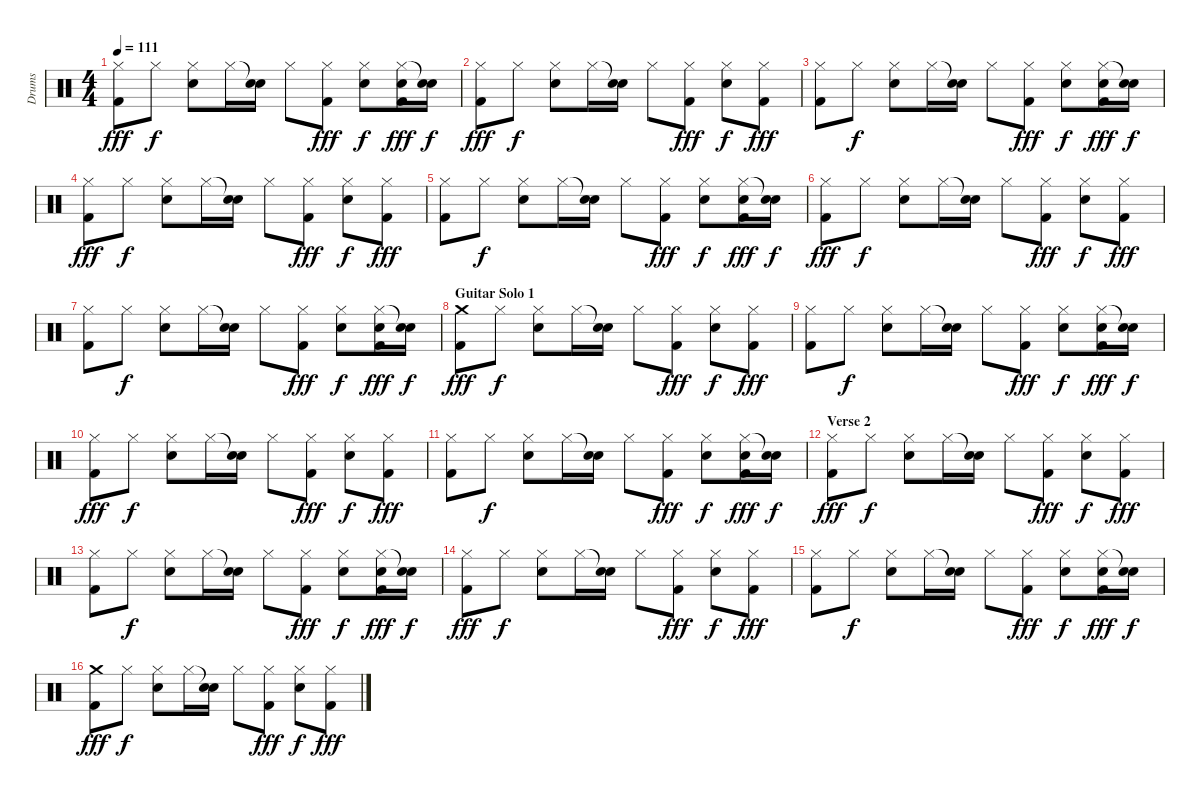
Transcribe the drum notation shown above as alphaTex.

\track ("Drums" "Drums") {instrument percussion}
\staff {score}
\articulation defaults
\ts (4 4)
\tempo 111
\clef neutral
\ks c
("Hi-Hat (closed)" "Kick (hit) 2").8{dy fff} "Hi-Hat (closed)".8{dy f} ("Hi-Hat (closed)" "Snare (hit) 2").8 "Hi-Hat (closed)".16 ("Snare (hit)"{t} "Snare (hit) 2").16 "Hi-Hat (closed)".8 ("Hi-Hat (closed)" "Kick (hit) 2").8{dy fff} ("Hi-Hat (closed)" "Snare (hit) 2").8{dy f} ("Hi-Hat (closed)" "Snare (hit) 2" "Kick (hit) 2").16{dy fff} ("Snare (hit)"{t} "Snare (hit) 2").16{dy f} |
("Hi-Hat (closed)" "Kick (hit) 2").8{dy fff} "Hi-Hat (closed)".8{dy f} ("Hi-Hat (closed)" "Snare (hit) 2").8 "Hi-Hat (closed)".16 ("Snare (hit)"{t} "Snare (hit) 2").16 "Hi-Hat (closed)".8 ("Hi-Hat (closed)" "Kick (hit) 2").8{dy fff} ("Hi-Hat (closed)" "Snare (hit) 2").8{dy f} ("Hi-Hat (closed)" "Kick (hit) 2").8{dy fff} |
("Hi-Hat (closed)" "Kick (hit) 2").8 "Hi-Hat (closed)".8{dy f} ("Hi-Hat (closed)" "Snare (hit) 2").8 "Hi-Hat (closed)".16 ("Snare (hit)"{t} "Snare (hit) 2").16 "Hi-Hat (closed)".8 ("Hi-Hat (closed)" "Kick (hit) 2").8{dy fff} ("Hi-Hat (closed)" "Snare (hit) 2").8{dy f} ("Hi-Hat (closed)" "Snare (hit) 2" "Kick (hit) 2").16{dy fff} ("Snare (hit)"{t} "Snare (hit) 2").16{dy f} |
("Hi-Hat (closed)" "Kick (hit) 2").8{dy fff} "Hi-Hat (closed)".8{dy f} ("Hi-Hat (closed)" "Snare (hit) 2").8 "Hi-Hat (closed)".16 ("Snare (hit)"{t} "Snare (hit) 2").16 "Hi-Hat (closed)".8 ("Hi-Hat (closed)" "Kick (hit) 2").8{dy fff} ("Hi-Hat (closed)" "Snare (hit) 2").8{dy f} ("Hi-Hat (closed)" "Kick (hit) 2").8{dy fff} |
("Hi-Hat (closed)" "Kick (hit) 2").8 "Hi-Hat (closed)".8{dy f} ("Hi-Hat (closed)" "Snare (hit) 2").8 "Hi-Hat (closed)".16 ("Snare (hit)"{t} "Snare (hit) 2").16 "Hi-Hat (closed)".8 ("Hi-Hat (closed)" "Kick (hit) 2").8{dy fff} ("Hi-Hat (closed)" "Snare (hit) 2").8{dy f} ("Hi-Hat (closed)" "Snare (hit) 2" "Kick (hit) 2").16{dy fff} ("Snare (hit)"{t} "Snare (hit) 2").16{dy f} |
("Hi-Hat (closed)" "Kick (hit) 2").8{dy fff} "Hi-Hat (closed)".8{dy f} ("Hi-Hat (closed)" "Snare (hit) 2").8 "Hi-Hat (closed)".16 ("Snare (hit)"{t} "Snare (hit) 2").16 "Hi-Hat (closed)".8 ("Hi-Hat (closed)" "Kick (hit) 2").8{dy fff} ("Hi-Hat (closed)" "Snare (hit) 2").8{dy f} ("Hi-Hat (closed)" "Kick (hit) 2").8{dy fff} |
("Hi-Hat (closed)" "Kick (hit) 2").8 "Hi-Hat (closed)".8{dy f} ("Hi-Hat (closed)" "Snare (hit) 2").8 "Hi-Hat (closed)".16 ("Snare (hit)"{t} "Snare (hit) 2").16 "Hi-Hat (closed)".8 ("Hi-Hat (closed)" "Kick (hit) 2").8{dy fff} ("Hi-Hat (closed)" "Snare (hit) 2").8{dy f} ("Hi-Hat (closed)" "Snare (hit) 2" "Kick (hit) 2").16{dy fff} ("Snare (hit)"{t} "Snare (hit) 2").16{dy f} |
\section ("" "Guitar Solo 1")
("Crash medium (hit)" "Kick (hit) 2").8{dy fff} "Hi-Hat (closed)".8{dy f} ("Hi-Hat (closed)" "Snare (hit) 2").8 "Hi-Hat (closed)".16 ("Snare (hit)"{t} "Snare (hit) 2").16 "Hi-Hat (closed)".8 ("Hi-Hat (closed)" "Kick (hit) 2").8{dy fff} ("Hi-Hat (closed)" "Snare (hit) 2").8{dy f} ("Hi-Hat (closed)" "Kick (hit) 2").8{dy fff} |
("Hi-Hat (closed)" "Kick (hit) 2").8 "Hi-Hat (closed)".8{dy f} ("Hi-Hat (closed)" "Snare (hit) 2").8 "Hi-Hat (closed)".16 ("Snare (hit)"{t} "Snare (hit) 2").16 "Hi-Hat (closed)".8 ("Hi-Hat (closed)" "Kick (hit) 2").8{dy fff} ("Hi-Hat (closed)" "Snare (hit) 2").8{dy f} ("Hi-Hat (closed)" "Snare (hit) 2" "Kick (hit) 2").16{dy fff} ("Snare (hit)"{t} "Snare (hit) 2").16{dy f} |
("Hi-Hat (closed)" "Kick (hit) 2").8{dy fff} "Hi-Hat (closed)".8{dy f} ("Hi-Hat (closed)" "Snare (hit) 2").8 "Hi-Hat (closed)".16 ("Snare (hit)"{t} "Snare (hit) 2").16 "Hi-Hat (closed)".8 ("Hi-Hat (closed)" "Kick (hit) 2").8{dy fff} ("Hi-Hat (closed)" "Snare (hit) 2").8{dy f} ("Hi-Hat (closed)" "Kick (hit) 2").8{dy fff} |
("Hi-Hat (closed)" "Kick (hit) 2").8 "Hi-Hat (closed)".8{dy f} ("Hi-Hat (closed)" "Snare (hit) 2").8 "Hi-Hat (closed)".16 ("Snare (hit)"{t} "Snare (hit) 2").16 "Hi-Hat (closed)".8 ("Hi-Hat (closed)" "Kick (hit) 2").8{dy fff} ("Hi-Hat (closed)" "Snare (hit) 2").8{dy f} ("Hi-Hat (closed)" "Snare (hit) 2" "Kick (hit) 2").16{dy fff} ("Snare (hit)"{t} "Snare (hit) 2").16{dy f} |
\section ("" "Verse 2")
("Hi-Hat (closed)" "Kick (hit) 2").8{dy fff} "Hi-Hat (closed)".8{dy f} ("Hi-Hat (closed)" "Snare (hit) 2").8 "Hi-Hat (closed)".16 ("Snare (hit)"{t} "Snare (hit) 2").16 "Hi-Hat (closed)".8 ("Hi-Hat (closed)" "Kick (hit) 2").8{dy fff} ("Hi-Hat (closed)" "Snare (hit) 2").8{dy f} ("Hi-Hat (closed)" "Kick (hit) 2").8{dy fff} |
("Hi-Hat (closed)" "Kick (hit) 2").8 "Hi-Hat (closed)".8{dy f} ("Hi-Hat (closed)" "Snare (hit) 2").8 "Hi-Hat (closed)".16 ("Snare (hit)"{t} "Snare (hit) 2").16 "Hi-Hat (closed)".8 ("Hi-Hat (closed)" "Kick (hit) 2").8{dy fff} ("Hi-Hat (closed)" "Snare (hit) 2").8{dy f} ("Hi-Hat (closed)" "Snare (hit) 2" "Kick (hit) 2").16{dy fff} ("Snare (hit)"{t} "Snare (hit) 2").16{dy f} |
("Hi-Hat (closed)" "Kick (hit) 2").8{dy fff} "Hi-Hat (closed)".8{dy f} ("Hi-Hat (closed)" "Snare (hit) 2").8 "Hi-Hat (closed)".16 ("Snare (hit)"{t} "Snare (hit) 2").16 "Hi-Hat (closed)".8 ("Hi-Hat (closed)" "Kick (hit) 2").8{dy fff} ("Hi-Hat (closed)" "Snare (hit) 2").8{dy f} ("Hi-Hat (closed)" "Kick (hit) 2").8{dy fff} |
("Hi-Hat (closed)" "Kick (hit) 2").8 "Hi-Hat (closed)".8{dy f} ("Hi-Hat (closed)" "Snare (hit) 2").8 "Hi-Hat (closed)".16 ("Snare (hit)"{t} "Snare (hit) 2").16 "Hi-Hat (closed)".8 ("Hi-Hat (closed)" "Kick (hit) 2").8{dy fff} ("Hi-Hat (closed)" "Snare (hit) 2").8{dy f} ("Hi-Hat (closed)" "Snare (hit) 2" "Kick (hit) 2").16{dy fff} ("Snare (hit)"{t} "Snare (hit) 2").16{dy f} |
("Crash medium (hit)" "Kick (hit) 2").8{dy fff} "Hi-Hat (closed)".8{dy f} ("Hi-Hat (closed)" "Snare (hit) 2").8 "Hi-Hat (closed)".16 ("Snare (hit)"{t} "Snare (hit) 2").16 "Hi-Hat (closed)".8 ("Hi-Hat (closed)" "Kick (hit) 2").8{dy fff} ("Hi-Hat (closed)" "Snare (hit) 2").8{dy f} ("Hi-Hat (closed)" "Kick (hit) 2").8{dy fff}
